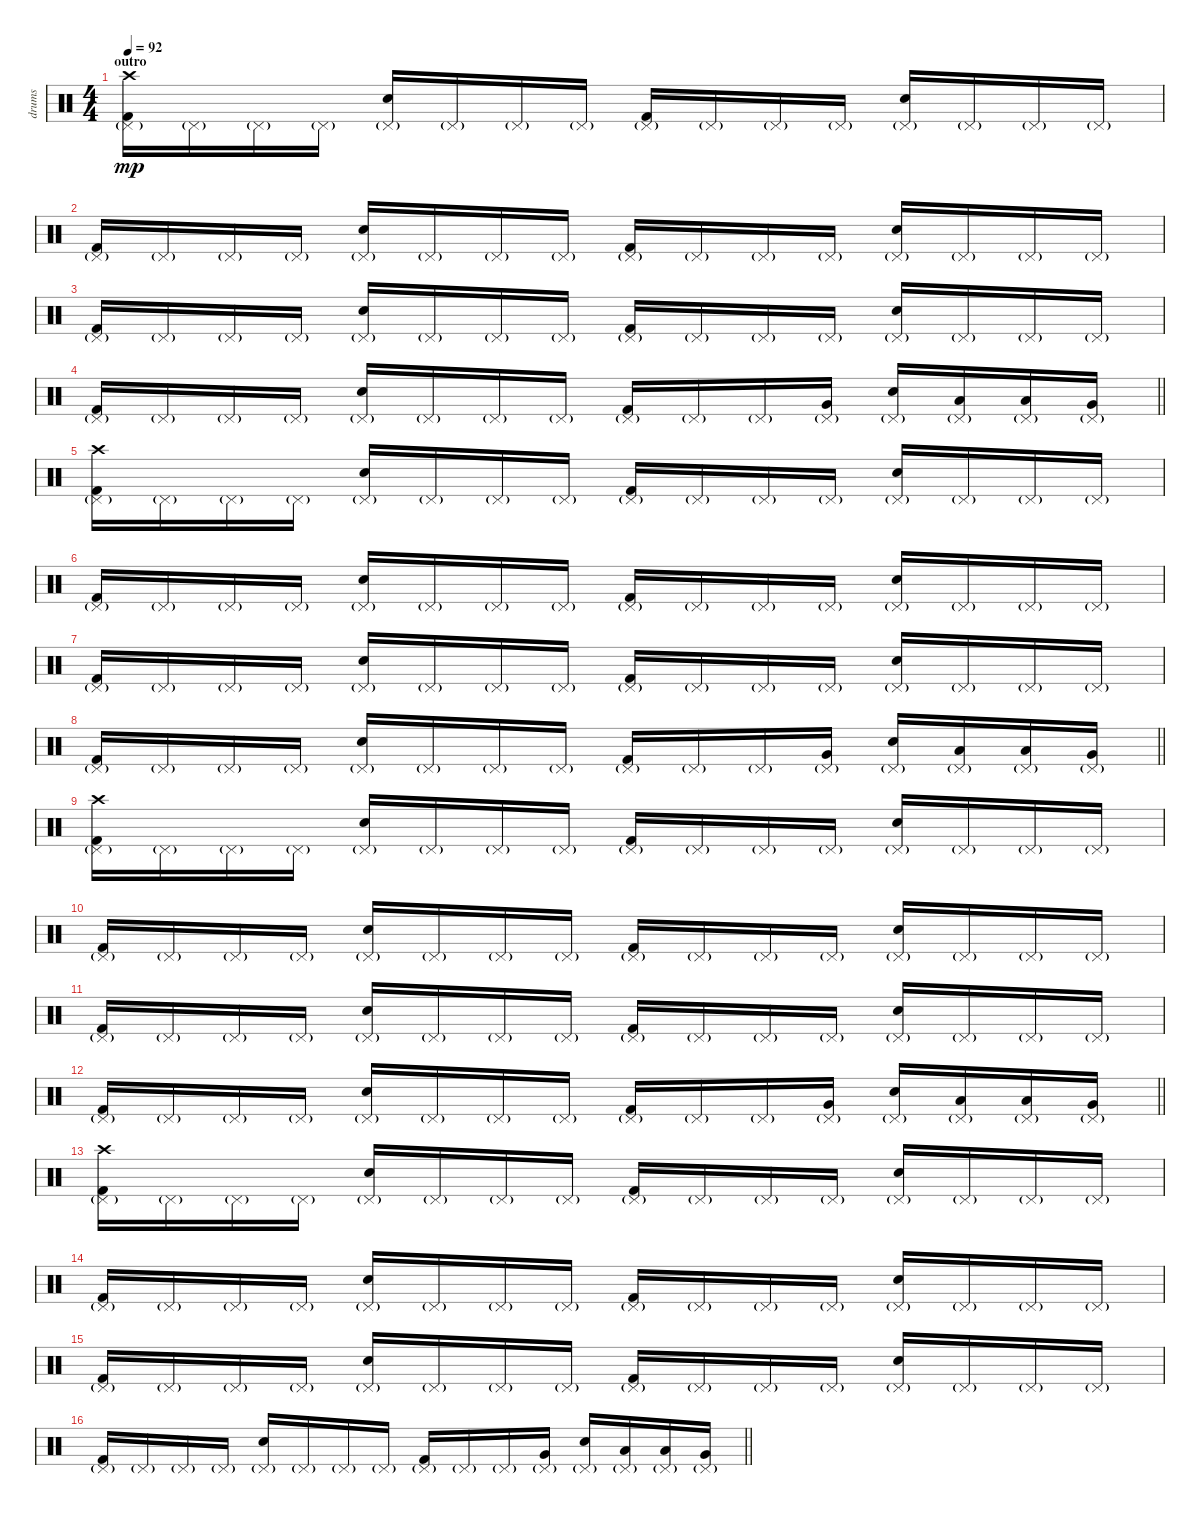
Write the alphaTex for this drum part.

\track ("drums" "drums") {instrument percussion}
\staff {score}
\articulation defaults
\ts (4 4)
\section ("" "outro")
\tempo 92
\clef neutral
\ks c
("Kick (hit) 2" "Pedal Hi-Hat (hit)"{g} "Crash high (hit)").16{dy mp} "Pedal Hi-Hat (hit)"{g}.16 "Pedal Hi-Hat (hit)"{g}.16 "Pedal Hi-Hat (hit)"{g}.16 ("Electric Snare (hit)" "Pedal Hi-Hat (hit)"{g}).16 "Pedal Hi-Hat (hit)"{g}.16 "Pedal Hi-Hat (hit)"{g}.16 "Pedal Hi-Hat (hit)"{g}.16 ("Kick (hit) 2" "Pedal Hi-Hat (hit)"{g}).16 "Pedal Hi-Hat (hit)"{g}.16 "Pedal Hi-Hat (hit)"{g}.16 "Pedal Hi-Hat (hit)"{g}.16 ("Electric Snare (hit)" "Pedal Hi-Hat (hit)"{g}).16 "Pedal Hi-Hat (hit)"{g}.16 "Pedal Hi-Hat (hit)"{g}.16 "Pedal Hi-Hat (hit)"{g}.16 |
("Kick (hit) 2" "Pedal Hi-Hat (hit)"{g}).16 "Pedal Hi-Hat (hit)"{g}.16 "Pedal Hi-Hat (hit)"{g}.16 "Pedal Hi-Hat (hit)"{g}.16 ("Electric Snare (hit)" "Pedal Hi-Hat (hit)"{g}).16 "Pedal Hi-Hat (hit)"{g}.16 "Pedal Hi-Hat (hit)"{g}.16 "Pedal Hi-Hat (hit)"{g}.16 ("Kick (hit) 2" "Pedal Hi-Hat (hit)"{g}).16 "Pedal Hi-Hat (hit)"{g}.16 "Pedal Hi-Hat (hit)"{g}.16 "Pedal Hi-Hat (hit)"{g}.16 ("Electric Snare (hit)" "Pedal Hi-Hat (hit)"{g}).16 "Pedal Hi-Hat (hit)"{g}.16 "Pedal Hi-Hat (hit)"{g}.16 "Pedal Hi-Hat (hit)"{g}.16 |
("Kick (hit) 2" "Pedal Hi-Hat (hit)"{g}).16 "Pedal Hi-Hat (hit)"{g}.16 "Pedal Hi-Hat (hit)"{g}.16 "Pedal Hi-Hat (hit)"{g}.16 ("Electric Snare (hit)" "Pedal Hi-Hat (hit)"{g}).16 "Pedal Hi-Hat (hit)"{g}.16 "Pedal Hi-Hat (hit)"{g}.16 "Pedal Hi-Hat (hit)"{g}.16 ("Kick (hit) 2" "Pedal Hi-Hat (hit)"{g}).16 "Pedal Hi-Hat (hit)"{g}.16 "Pedal Hi-Hat (hit)"{g}.16 "Pedal Hi-Hat (hit)"{g}.16 ("Electric Snare (hit)" "Pedal Hi-Hat (hit)"{g}).16 "Pedal Hi-Hat (hit)"{g}.16 "Pedal Hi-Hat (hit)"{g}.16 "Pedal Hi-Hat (hit)"{g}.16 |
\barLineRight lightlight
("Kick (hit) 2" "Pedal Hi-Hat (hit)"{g}).16 "Pedal Hi-Hat (hit)"{g}.16 "Pedal Hi-Hat (hit)"{g}.16 "Pedal Hi-Hat (hit)"{g}.16 ("Electric Snare (hit)" "Pedal Hi-Hat (hit)"{g}).16 "Pedal Hi-Hat (hit)"{g}.16 "Pedal Hi-Hat (hit)"{g}.16 "Pedal Hi-Hat (hit)"{g}.16 ("Kick (hit) 2" "Pedal Hi-Hat (hit)"{g}).16 "Pedal Hi-Hat (hit)"{g}.16 "Pedal Hi-Hat (hit)"{g}.16 ("Very Low Tom (hit)" "Pedal Hi-Hat (hit)"{g}).16 ("Electric Snare (hit)" "Pedal Hi-Hat (hit)"{g}).16 ("Low Floor Tom (hit)" "Pedal Hi-Hat (hit)"{g}).16 ("Low Floor Tom (hit)" "Pedal Hi-Hat (hit)"{g}).16 ("Very Low Tom (hit)" "Pedal Hi-Hat (hit)"{g}).16 |
("Kick (hit) 2" "Pedal Hi-Hat (hit)"{g} "Crash high (hit)").16 "Pedal Hi-Hat (hit)"{g}.16 "Pedal Hi-Hat (hit)"{g}.16 "Pedal Hi-Hat (hit)"{g}.16 ("Electric Snare (hit)" "Pedal Hi-Hat (hit)"{g}).16 "Pedal Hi-Hat (hit)"{g}.16 "Pedal Hi-Hat (hit)"{g}.16 "Pedal Hi-Hat (hit)"{g}.16 ("Kick (hit) 2" "Pedal Hi-Hat (hit)"{g}).16 "Pedal Hi-Hat (hit)"{g}.16 "Pedal Hi-Hat (hit)"{g}.16 "Pedal Hi-Hat (hit)"{g}.16 ("Electric Snare (hit)" "Pedal Hi-Hat (hit)"{g}).16 "Pedal Hi-Hat (hit)"{g}.16 "Pedal Hi-Hat (hit)"{g}.16 "Pedal Hi-Hat (hit)"{g}.16 |
("Kick (hit) 2" "Pedal Hi-Hat (hit)"{g}).16 "Pedal Hi-Hat (hit)"{g}.16 "Pedal Hi-Hat (hit)"{g}.16 "Pedal Hi-Hat (hit)"{g}.16 ("Electric Snare (hit)" "Pedal Hi-Hat (hit)"{g}).16 "Pedal Hi-Hat (hit)"{g}.16 "Pedal Hi-Hat (hit)"{g}.16 "Pedal Hi-Hat (hit)"{g}.16 ("Kick (hit) 2" "Pedal Hi-Hat (hit)"{g}).16 "Pedal Hi-Hat (hit)"{g}.16 "Pedal Hi-Hat (hit)"{g}.16 "Pedal Hi-Hat (hit)"{g}.16 ("Electric Snare (hit)" "Pedal Hi-Hat (hit)"{g}).16 "Pedal Hi-Hat (hit)"{g}.16 "Pedal Hi-Hat (hit)"{g}.16 "Pedal Hi-Hat (hit)"{g}.16 |
("Kick (hit) 2" "Pedal Hi-Hat (hit)"{g}).16 "Pedal Hi-Hat (hit)"{g}.16 "Pedal Hi-Hat (hit)"{g}.16 "Pedal Hi-Hat (hit)"{g}.16 ("Electric Snare (hit)" "Pedal Hi-Hat (hit)"{g}).16 "Pedal Hi-Hat (hit)"{g}.16 "Pedal Hi-Hat (hit)"{g}.16 "Pedal Hi-Hat (hit)"{g}.16 ("Kick (hit) 2" "Pedal Hi-Hat (hit)"{g}).16 "Pedal Hi-Hat (hit)"{g}.16 "Pedal Hi-Hat (hit)"{g}.16 "Pedal Hi-Hat (hit)"{g}.16 ("Electric Snare (hit)" "Pedal Hi-Hat (hit)"{g}).16 "Pedal Hi-Hat (hit)"{g}.16 "Pedal Hi-Hat (hit)"{g}.16 "Pedal Hi-Hat (hit)"{g}.16 |
\barLineRight lightlight
("Kick (hit) 2" "Pedal Hi-Hat (hit)"{g}).16 "Pedal Hi-Hat (hit)"{g}.16 "Pedal Hi-Hat (hit)"{g}.16 "Pedal Hi-Hat (hit)"{g}.16 ("Electric Snare (hit)" "Pedal Hi-Hat (hit)"{g}).16 "Pedal Hi-Hat (hit)"{g}.16 "Pedal Hi-Hat (hit)"{g}.16 "Pedal Hi-Hat (hit)"{g}.16 ("Kick (hit) 2" "Pedal Hi-Hat (hit)"{g}).16 "Pedal Hi-Hat (hit)"{g}.16 "Pedal Hi-Hat (hit)"{g}.16 ("Very Low Tom (hit)" "Pedal Hi-Hat (hit)"{g}).16 ("Electric Snare (hit)" "Pedal Hi-Hat (hit)"{g}).16 ("Low Floor Tom (hit)" "Pedal Hi-Hat (hit)"{g}).16 ("Low Floor Tom (hit)" "Pedal Hi-Hat (hit)"{g}).16 ("Very Low Tom (hit)" "Pedal Hi-Hat (hit)"{g}).16 |
("Kick (hit) 2" "Pedal Hi-Hat (hit)"{g} "Crash high (hit)").16 "Pedal Hi-Hat (hit)"{g}.16 "Pedal Hi-Hat (hit)"{g}.16 "Pedal Hi-Hat (hit)"{g}.16 ("Electric Snare (hit)" "Pedal Hi-Hat (hit)"{g}).16 "Pedal Hi-Hat (hit)"{g}.16 "Pedal Hi-Hat (hit)"{g}.16 "Pedal Hi-Hat (hit)"{g}.16 ("Kick (hit) 2" "Pedal Hi-Hat (hit)"{g}).16 "Pedal Hi-Hat (hit)"{g}.16 "Pedal Hi-Hat (hit)"{g}.16 "Pedal Hi-Hat (hit)"{g}.16 ("Electric Snare (hit)" "Pedal Hi-Hat (hit)"{g}).16 "Pedal Hi-Hat (hit)"{g}.16 "Pedal Hi-Hat (hit)"{g}.16 "Pedal Hi-Hat (hit)"{g}.16 |
("Kick (hit) 2" "Pedal Hi-Hat (hit)"{g}).16 "Pedal Hi-Hat (hit)"{g}.16 "Pedal Hi-Hat (hit)"{g}.16 "Pedal Hi-Hat (hit)"{g}.16 ("Electric Snare (hit)" "Pedal Hi-Hat (hit)"{g}).16 "Pedal Hi-Hat (hit)"{g}.16 "Pedal Hi-Hat (hit)"{g}.16 "Pedal Hi-Hat (hit)"{g}.16 ("Kick (hit) 2" "Pedal Hi-Hat (hit)"{g}).16 "Pedal Hi-Hat (hit)"{g}.16 "Pedal Hi-Hat (hit)"{g}.16 "Pedal Hi-Hat (hit)"{g}.16 ("Electric Snare (hit)" "Pedal Hi-Hat (hit)"{g}).16 "Pedal Hi-Hat (hit)"{g}.16 "Pedal Hi-Hat (hit)"{g}.16 "Pedal Hi-Hat (hit)"{g}.16 |
("Kick (hit) 2" "Pedal Hi-Hat (hit)"{g}).16 "Pedal Hi-Hat (hit)"{g}.16 "Pedal Hi-Hat (hit)"{g}.16 "Pedal Hi-Hat (hit)"{g}.16 ("Electric Snare (hit)" "Pedal Hi-Hat (hit)"{g}).16 "Pedal Hi-Hat (hit)"{g}.16 "Pedal Hi-Hat (hit)"{g}.16 "Pedal Hi-Hat (hit)"{g}.16 ("Kick (hit) 2" "Pedal Hi-Hat (hit)"{g}).16 "Pedal Hi-Hat (hit)"{g}.16 "Pedal Hi-Hat (hit)"{g}.16 "Pedal Hi-Hat (hit)"{g}.16 ("Electric Snare (hit)" "Pedal Hi-Hat (hit)"{g}).16 "Pedal Hi-Hat (hit)"{g}.16 "Pedal Hi-Hat (hit)"{g}.16 "Pedal Hi-Hat (hit)"{g}.16 |
\barLineRight lightlight
("Kick (hit) 2" "Pedal Hi-Hat (hit)"{g}).16 "Pedal Hi-Hat (hit)"{g}.16 "Pedal Hi-Hat (hit)"{g}.16 "Pedal Hi-Hat (hit)"{g}.16 ("Electric Snare (hit)" "Pedal Hi-Hat (hit)"{g}).16 "Pedal Hi-Hat (hit)"{g}.16 "Pedal Hi-Hat (hit)"{g}.16 "Pedal Hi-Hat (hit)"{g}.16 ("Kick (hit) 2" "Pedal Hi-Hat (hit)"{g}).16 "Pedal Hi-Hat (hit)"{g}.16 "Pedal Hi-Hat (hit)"{g}.16 ("Very Low Tom (hit)" "Pedal Hi-Hat (hit)"{g}).16 ("Electric Snare (hit)" "Pedal Hi-Hat (hit)"{g}).16 ("Low Floor Tom (hit)" "Pedal Hi-Hat (hit)"{g}).16 ("Low Floor Tom (hit)" "Pedal Hi-Hat (hit)"{g}).16 ("Very Low Tom (hit)" "Pedal Hi-Hat (hit)"{g}).16 |
("Kick (hit) 2" "Pedal Hi-Hat (hit)"{g} "Crash high (hit)").16 "Pedal Hi-Hat (hit)"{g}.16 "Pedal Hi-Hat (hit)"{g}.16 "Pedal Hi-Hat (hit)"{g}.16 ("Electric Snare (hit)" "Pedal Hi-Hat (hit)"{g}).16 "Pedal Hi-Hat (hit)"{g}.16 "Pedal Hi-Hat (hit)"{g}.16 "Pedal Hi-Hat (hit)"{g}.16 ("Kick (hit) 2" "Pedal Hi-Hat (hit)"{g}).16 "Pedal Hi-Hat (hit)"{g}.16 "Pedal Hi-Hat (hit)"{g}.16 "Pedal Hi-Hat (hit)"{g}.16 ("Electric Snare (hit)" "Pedal Hi-Hat (hit)"{g}).16 "Pedal Hi-Hat (hit)"{g}.16 "Pedal Hi-Hat (hit)"{g}.16 "Pedal Hi-Hat (hit)"{g}.16 |
("Kick (hit) 2" "Pedal Hi-Hat (hit)"{g}).16 "Pedal Hi-Hat (hit)"{g}.16 "Pedal Hi-Hat (hit)"{g}.16 "Pedal Hi-Hat (hit)"{g}.16 ("Electric Snare (hit)" "Pedal Hi-Hat (hit)"{g}).16 "Pedal Hi-Hat (hit)"{g}.16 "Pedal Hi-Hat (hit)"{g}.16 "Pedal Hi-Hat (hit)"{g}.16 ("Kick (hit) 2" "Pedal Hi-Hat (hit)"{g}).16 "Pedal Hi-Hat (hit)"{g}.16 "Pedal Hi-Hat (hit)"{g}.16 "Pedal Hi-Hat (hit)"{g}.16 ("Electric Snare (hit)" "Pedal Hi-Hat (hit)"{g}).16 "Pedal Hi-Hat (hit)"{g}.16 "Pedal Hi-Hat (hit)"{g}.16 "Pedal Hi-Hat (hit)"{g}.16 |
("Kick (hit) 2" "Pedal Hi-Hat (hit)"{g}).16 "Pedal Hi-Hat (hit)"{g}.16 "Pedal Hi-Hat (hit)"{g}.16 "Pedal Hi-Hat (hit)"{g}.16 ("Electric Snare (hit)" "Pedal Hi-Hat (hit)"{g}).16 "Pedal Hi-Hat (hit)"{g}.16 "Pedal Hi-Hat (hit)"{g}.16 "Pedal Hi-Hat (hit)"{g}.16 ("Kick (hit) 2" "Pedal Hi-Hat (hit)"{g}).16 "Pedal Hi-Hat (hit)"{g}.16 "Pedal Hi-Hat (hit)"{g}.16 "Pedal Hi-Hat (hit)"{g}.16 ("Electric Snare (hit)" "Pedal Hi-Hat (hit)"{g}).16 "Pedal Hi-Hat (hit)"{g}.16 "Pedal Hi-Hat (hit)"{g}.16 "Pedal Hi-Hat (hit)"{g}.16 |
\barLineRight lightlight
("Kick (hit) 2" "Pedal Hi-Hat (hit)"{g}).16 "Pedal Hi-Hat (hit)"{g}.16 "Pedal Hi-Hat (hit)"{g}.16 "Pedal Hi-Hat (hit)"{g}.16 ("Electric Snare (hit)" "Pedal Hi-Hat (hit)"{g}).16 "Pedal Hi-Hat (hit)"{g}.16 "Pedal Hi-Hat (hit)"{g}.16 "Pedal Hi-Hat (hit)"{g}.16 ("Kick (hit) 2" "Pedal Hi-Hat (hit)"{g}).16 "Pedal Hi-Hat (hit)"{g}.16 "Pedal Hi-Hat (hit)"{g}.16 ("Very Low Tom (hit)" "Pedal Hi-Hat (hit)"{g}).16 ("Electric Snare (hit)" "Pedal Hi-Hat (hit)"{g}).16 ("Low Floor Tom (hit)" "Pedal Hi-Hat (hit)"{g}).16 ("Low Floor Tom (hit)" "Pedal Hi-Hat (hit)"{g}).16 ("Very Low Tom (hit)" "Pedal Hi-Hat (hit)"{g}).16
